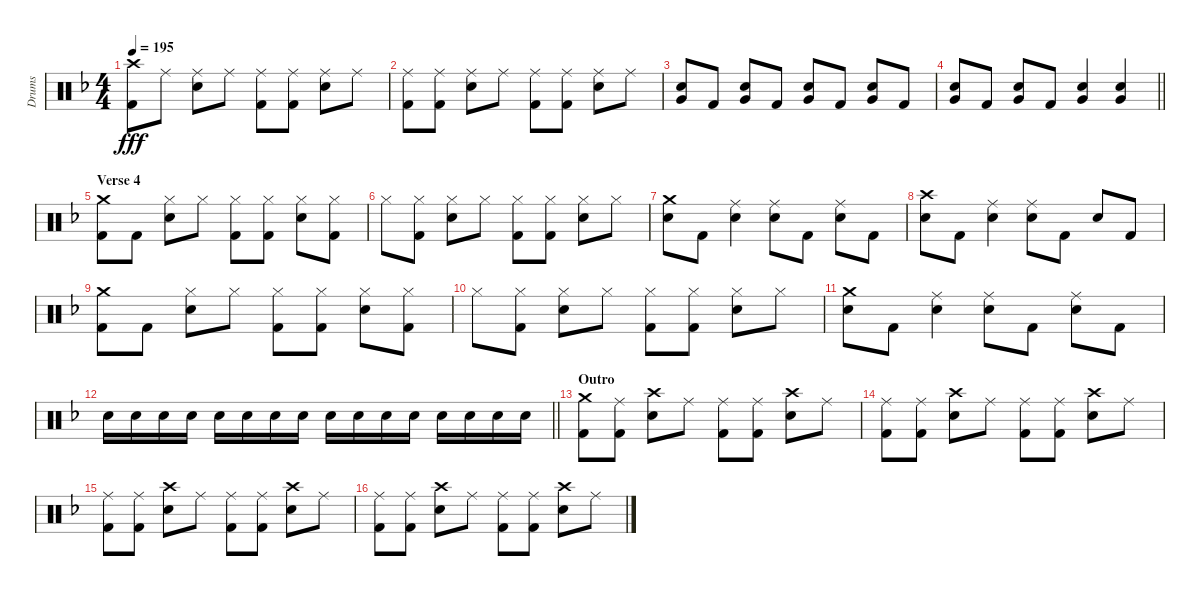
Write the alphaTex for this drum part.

\track ("Drums" "Drums") {instrument percussion}
\staff {score}
\articulation defaults
\ts (4 4)
\tempo 195
\clef neutral
\ks f
("Crash high (hit)" "Kick (hit) 2").8{dy fff} "Ride (middle)".8 ("Ride (middle)" "Electric Snare (hit)").8 "Ride (middle)".8 ("Ride (middle)" "Kick (hit) 2").8 ("Ride (middle)" "Kick (hit) 2").8 ("Ride (middle)" "Electric Snare (hit)").8 "Ride (middle)".8 |
("Ride (middle)" "Kick (hit) 2").8 ("Ride (middle)" "Kick (hit) 2").8 ("Ride (middle)" "Electric Snare (hit)").8 "Ride (middle)".8 ("Ride (middle)" "Kick (hit) 2").8 ("Ride (middle)" "Kick (hit) 2").8 ("Ride (middle)" "Electric Snare (hit)").8 "Ride (middle)".8 |
("Electric Snare (hit)" "Very Low Tom (hit)").8 "Kick (hit) 2".8 ("Electric Snare (hit)" "Very Low Tom (hit)").8 "Kick (hit) 2".8 ("Electric Snare (hit)" "Very Low Tom (hit)").8 "Kick (hit) 2".8 ("Electric Snare (hit)" "Very Low Tom (hit)").8 "Kick (hit) 2".8 |
\barLineRight lightlight
("Electric Snare (hit)" "Very Low Tom (hit)").8 "Kick (hit) 2".8 ("Electric Snare (hit)" "Very Low Tom (hit)").8 "Kick (hit) 2".8 ("Electric Snare (hit)" "Very Low Tom (hit)").4 ("Electric Snare (hit)" "Very Low Tom (hit)").4 |
\section ("" "Verse 4")
("Crash medium (hit)" "Kick (hit) 2").8 "Kick (hit) 2".8 ("Hi-Hat (closed)" "Electric Snare (hit)").8 "Hi-Hat (closed)".8 ("Hi-Hat (closed)" "Kick (hit) 2").8 ("Hi-Hat (closed)" "Kick (hit) 2").8 ("Hi-Hat (closed)" "Electric Snare (hit)").8 ("Hi-Hat (closed)" "Kick (hit) 2").8 |
"Hi-Hat (closed)".8 ("Hi-Hat (closed)" "Kick (hit) 2").8 ("Hi-Hat (closed)" "Electric Snare (hit)").8 "Hi-Hat (closed)".8 ("Hi-Hat (closed)" "Kick (hit) 2").8 ("Hi-Hat (closed)" "Kick (hit) 2").8 ("Hi-Hat (closed)" "Electric Snare (hit)").8 "Hi-Hat (closed)".8 |
("Crash medium (hit)" "Electric Snare (hit)").8 "Kick (hit) 2".8 ("Ride (middle)" "Electric Snare (hit)").4 ("Ride (middle)" "Electric Snare (hit)").8 "Kick (hit) 2".8 ("Ride (middle)" "Electric Snare (hit)").8 "Kick (hit) 2".8 |
("Crash high (hit)" "Electric Snare (hit)").8 "Kick (hit) 2".8 ("Ride (middle)" "Electric Snare (hit)").4 ("Ride (middle)" "Electric Snare (hit)").8 "Kick (hit) 2".8 "Electric Snare (hit)".8 "Kick (hit) 2".8 |
("Crash medium (hit)" "Kick (hit) 2").8 "Kick (hit) 2".8 ("Hi-Hat (closed)" "Electric Snare (hit)").8 "Hi-Hat (closed)".8 ("Hi-Hat (closed)" "Kick (hit) 2").8 ("Hi-Hat (closed)" "Kick (hit) 2").8 ("Hi-Hat (closed)" "Electric Snare (hit)").8 ("Hi-Hat (closed)" "Kick (hit) 2").8 |
"Hi-Hat (closed)".8 ("Hi-Hat (closed)" "Kick (hit) 2").8 ("Hi-Hat (closed)" "Electric Snare (hit)").8 "Hi-Hat (closed)".8 ("Hi-Hat (closed)" "Kick (hit) 2").8 ("Hi-Hat (closed)" "Kick (hit) 2").8 ("Hi-Hat (closed)" "Electric Snare (hit)").8 "Hi-Hat (closed)".8 |
("Crash medium (hit)" "Electric Snare (hit)").8 "Kick (hit) 2".8 ("Ride (middle)" "Electric Snare (hit)").4 ("Ride (middle)" "Electric Snare (hit)").8 "Kick (hit) 2".8 ("Ride (middle)" "Electric Snare (hit)").8 "Kick (hit) 2".8 |
\barLineRight lightlight "Electric Snare (hit)".16 "Electric Snare (hit)".16 "Electric Snare (hit)".16 "Electric Snare (hit)".16 "Electric Snare (hit)".16 "Electric Snare (hit)".16 "Electric Snare (hit)".16 "Electric Snare (hit)".16 "Electric Snare (hit)".16 "Electric Snare (hit)".16 "Electric Snare (hit)".16 "Electric Snare (hit)".16 "Electric Snare (hit)".16 "Electric Snare (hit)".16 "Electric Snare (hit)".16 "Electric Snare (hit)".16
|
\section ("" "Outro")
("Crash medium (hit)" "Kick (hit) 2").8 ("Ride (middle)" "Kick (hit) 2").8 ("Crash high (hit)" "Electric Snare (hit)").8 "Ride (middle)".8 ("Ride (middle)" "Kick (hit) 2").8 ("Ride (middle)" "Kick (hit) 2").8 ("Crash high (hit)" "Electric Snare (hit)").8 "Ride (middle)".8 |
("Ride (middle)" "Kick (hit) 2").8 ("Ride (middle)" "Kick (hit) 2").8 ("Crash high (hit)" "Electric Snare (hit)").8 "Ride (middle)".8 ("Ride (middle)" "Kick (hit) 2").8 ("Ride (middle)" "Kick (hit) 2").8 ("Crash high (hit)" "Electric Snare (hit)").8 "Ride (middle)".8 |
("Ride (middle)" "Kick (hit) 2").8 ("Ride (middle)" "Kick (hit) 2").8 ("Crash high (hit)" "Electric Snare (hit)").8 "Ride (middle)".8 ("Ride (middle)" "Kick (hit) 2").8 ("Ride (middle)" "Kick (hit) 2").8 ("Crash high (hit)" "Electric Snare (hit)").8 "Ride (middle)".8 |
("Ride (middle)" "Kick (hit) 2").8 ("Ride (middle)" "Kick (hit) 2").8 ("Crash high (hit)" "Electric Snare (hit)").8 "Ride (middle)".8 ("Ride (middle)" "Kick (hit) 2").8 ("Ride (middle)" "Kick (hit) 2").8 ("Crash high (hit)" "Electric Snare (hit)").8 "Ride (middle)".8
